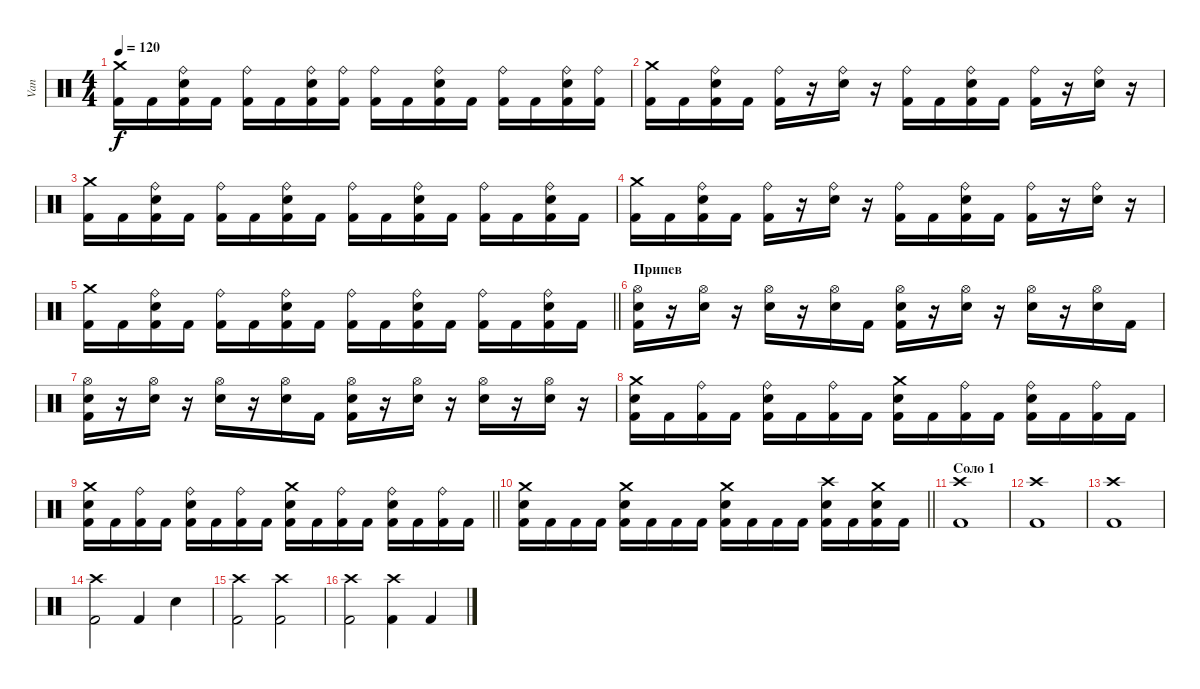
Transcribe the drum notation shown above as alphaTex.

\track ("Van" "Van") {instrument percussion}
\staff {score}
\articulation defaults
\ts (4 4)
\tempo 120
\clef neutral
\ks c
("Crash medium (hit)" "Kick (hit) 2").16{dy f} "Kick (hit) 2".16 ("Ride (bell)" "Electric Snare (hit)" "Kick (hit) 2").16 "Kick (hit) 2".16 ("Ride (bell)" "Kick (hit) 2").16 "Kick (hit) 2".16 ("Ride (bell)" "Electric Snare (hit)" "Kick (hit) 2").16 ("Ride (bell)" "Kick (hit) 2").16 ("Ride (bell)" "Kick (hit) 2").16 "Kick (hit) 2".16 ("Ride (bell)" "Electric Snare (hit)" "Kick (hit) 2").16 "Kick (hit) 2".16 ("Ride (bell)" "Kick (hit) 2").16 "Kick (hit) 2".16 ("Ride (bell)" "Electric Snare (hit)" "Kick (hit) 2").16 ("Ride (bell)" "Kick (hit) 2").16 |
("Crash medium (hit)" "Kick (hit) 2").16 "Kick (hit) 2".16 ("Ride (bell)" "Electric Snare (hit)" "Kick (hit) 2").16 "Kick (hit) 2".16 ("Ride (bell)" "Kick (hit) 2").16 r.16 ("Ride (bell)" "Electric Snare (hit)").16 r.16 ("Ride (bell)" "Kick (hit) 2").16 "Kick (hit) 2".16 ("Ride (bell)" "Electric Snare (hit)" "Kick (hit) 2").16 "Kick (hit) 2".16 ("Ride (bell)" "Kick (hit) 2").16 r.16 ("Ride (bell)" "Electric Snare (hit)").16 r.16 |
("Crash medium (hit)" "Kick (hit) 2").16 "Kick (hit) 2".16 ("Ride (bell)" "Electric Snare (hit)" "Kick (hit) 2").16 "Kick (hit) 2".16 ("Ride (bell)" "Kick (hit) 2").16 "Kick (hit) 2".16 ("Ride (bell)" "Electric Snare (hit)" "Kick (hit) 2").16 "Kick (hit) 2".16 ("Ride (bell)" "Kick (hit) 2").16 "Kick (hit) 2".16 ("Ride (bell)" "Electric Snare (hit)" "Kick (hit) 2").16 "Kick (hit) 2".16 ("Ride (bell)" "Kick (hit) 2").16 "Kick (hit) 2".16 ("Ride (bell)" "Electric Snare (hit)" "Kick (hit) 2").16 "Kick (hit) 2".16 |
("Crash medium (hit)" "Kick (hit) 2").16 "Kick (hit) 2".16 ("Ride (bell)" "Electric Snare (hit)" "Kick (hit) 2").16 "Kick (hit) 2".16 ("Ride (bell)" "Kick (hit) 2").16 r.16 ("Ride (bell)" "Electric Snare (hit)").16 r.16 ("Ride (bell)" "Kick (hit) 2").16 "Kick (hit) 2".16 ("Ride (bell)" "Electric Snare (hit)" "Kick (hit) 2").16 "Kick (hit) 2".16 ("Ride (bell)" "Kick (hit) 2").16 r.16 ("Ride (bell)" "Electric Snare (hit)").16 r.16 |
\barLineRight lightlight
("Crash medium (hit)" "Kick (hit) 2").16 "Kick (hit) 2".16 ("Ride (bell)" "Electric Snare (hit)" "Kick (hit) 2").16 "Kick (hit) 2".16 ("Ride (bell)" "Kick (hit) 2").16 "Kick (hit) 2".16 ("Ride (bell)" "Electric Snare (hit)" "Kick (hit) 2").16 "Kick (hit) 2".16 ("Ride (bell)" "Kick (hit) 2").16 "Kick (hit) 2".16 ("Ride (bell)" "Electric Snare (hit)" "Kick (hit) 2").16 "Kick (hit) 2".16 ("Ride (bell)" "Kick (hit) 2").16 "Kick (hit) 2".16 ("Ride (bell)" "Electric Snare (hit)" "Kick (hit) 2").16 "Kick (hit) 2".16 |
\section ("" "Припев")
("Hi-Hat (open)" "Electric Snare (hit)" "Kick (hit) 2").16 r.16 ("Hi-Hat (open)" "Electric Snare (hit)").16 r.16 ("Hi-Hat (open)" "Electric Snare (hit)").16 r.16 ("Hi-Hat (open)" "Electric Snare (hit)").16 "Kick (hit) 2".16 ("Hi-Hat (open)" "Electric Snare (hit)" "Kick (hit) 2").16 r.16 ("Hi-Hat (open)" "Electric Snare (hit)").16 r.16 ("Hi-Hat (open)" "Electric Snare (hit)").16 r.16 ("Hi-Hat (open)" "Electric Snare (hit)").16 "Kick (hit) 2".16 |
("Hi-Hat (open)" "Electric Snare (hit)" "Kick (hit) 2").16 r.16 ("Hi-Hat (open)" "Electric Snare (hit)").16 r.16 ("Hi-Hat (open)" "Electric Snare (hit)").16 r.16 ("Hi-Hat (open)" "Electric Snare (hit)").16 "Kick (hit) 2".16 ("Hi-Hat (open)" "Electric Snare (hit)" "Kick (hit) 2").16 r.16 ("Hi-Hat (open)" "Electric Snare (hit)").16 r.16 ("Hi-Hat (open)" "Electric Snare (hit)").16 r.16 ("Hi-Hat (open)" "Electric Snare (hit)").16 r.16 |
("Crash medium (hit)" "Electric Snare (hit)" "Kick (hit) 2").16 "Kick (hit) 2".16 ("Ride (bell)" "Kick (hit) 2").16 "Kick (hit) 2".16 ("Ride (bell)" "Electric Snare (hit)" "Kick (hit) 2").16 "Kick (hit) 2".16 ("Ride (bell)" "Kick (hit) 2").16 "Kick (hit) 2".16 ("Crash medium (hit)" "Electric Snare (hit)" "Kick (hit) 2").16 "Kick (hit) 2".16 ("Ride (bell)" "Kick (hit) 2").16 "Kick (hit) 2".16 ("Ride (bell)" "Electric Snare (hit)" "Kick (hit) 2").16 "Kick (hit) 2".16 ("Ride (bell)" "Kick (hit) 2").16 "Kick (hit) 2".16 |
\barLineRight lightlight
("Crash medium (hit)" "Electric Snare (hit)" "Kick (hit) 2").16 "Kick (hit) 2".16 ("Ride (bell)" "Kick (hit) 2").16 "Kick (hit) 2".16 ("Ride (bell)" "Electric Snare (hit)" "Kick (hit) 2").16 "Kick (hit) 2".16 ("Ride (bell)" "Kick (hit) 2").16 "Kick (hit) 2".16 ("Crash medium (hit)" "Electric Snare (hit)" "Kick (hit) 2").16 "Kick (hit) 2".16 ("Ride (bell)" "Kick (hit) 2").16 "Kick (hit) 2".16 ("Ride (bell)" "Electric Snare (hit)" "Kick (hit) 2").16 "Kick (hit) 2".16 ("Ride (bell)" "Kick (hit) 2").16 "Kick (hit) 2".16 |
\barLineRight lightlight
("Crash medium (hit)" "Electric Snare (hit)" "Kick (hit) 2").16 "Kick (hit) 2".16 "Kick (hit) 2".16 "Kick (hit) 2".16 ("Crash medium (hit)" "Electric Snare (hit)" "Kick (hit) 2").16 "Kick (hit) 2".16 "Kick (hit) 2".16 "Kick (hit) 2".16 ("Crash medium (hit)" "Electric Snare (hit)" "Kick (hit) 2").16 "Kick (hit) 2".16 "Kick (hit) 2".16 "Kick (hit) 2".16 ("Crash high (hit)" "Electric Snare (hit)" "Kick (hit) 2").16 "Kick (hit) 2".16 ("Crash medium (hit)" "Electric Snare (hit)" "Kick (hit) 2").16 "Kick (hit) 2".16 |
\section ("" "Соло 1")
("Crash high (hit)" "Kick (hit) 2").1 |
("Crash high (hit)" "Kick (hit) 2").1 |
("Crash high (hit)" "Kick (hit) 2").1 |
("Crash high (hit)" "Kick (hit) 2").2 "Kick (hit) 2".4 "Electric Snare (hit)".4 |
("Crash high (hit)" "Kick (hit) 2").2 ("Crash high (hit)" "Kick (hit) 2").2 |
("Crash high (hit)" "Kick (hit) 2").2 ("Crash high (hit)" "Kick (hit) 2").4 "Kick (hit) 2".4
